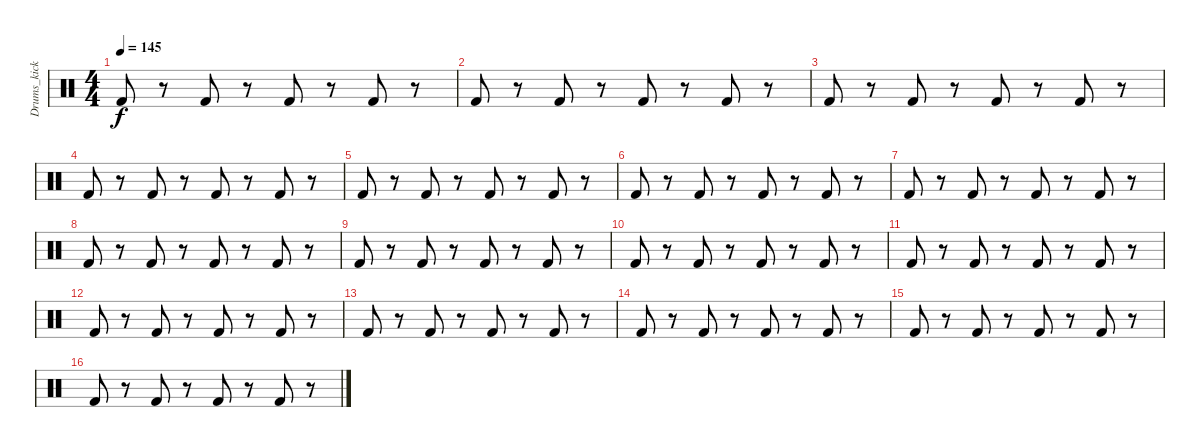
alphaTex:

\track ("Drums_kick" "Drums_kick") {instrument percussion}
\staff {score}
\articulation defaults
\ts (4 4)
\tempo 145
\clef neutral
\ks c "Kick (hit) 2".8{dy f}
r.8 "Kick (hit) 2".8 r.8 "Kick (hit) 2".8 r.8 "Kick (hit) 2".8 r.8 |
"Kick (hit) 2".8 r.8 "Kick (hit) 2".8 r.8 "Kick (hit) 2".8 r.8 "Kick (hit) 2".8 r.8 |
"Kick (hit) 2".8 r.8 "Kick (hit) 2".8 r.8 "Kick (hit) 2".8 r.8 "Kick (hit) 2".8 r.8 |
"Kick (hit) 2".8 r.8 "Kick (hit) 2".8 r.8 "Kick (hit) 2".8 r.8 "Kick (hit) 2".8 r.8 |
"Kick (hit) 2".8 r.8 "Kick (hit) 2".8 r.8 "Kick (hit) 2".8 r.8 "Kick (hit) 2".8 r.8 |
"Kick (hit) 2".8 r.8 "Kick (hit) 2".8 r.8 "Kick (hit) 2".8 r.8 "Kick (hit) 2".8 r.8 |
"Kick (hit) 2".8 r.8 "Kick (hit) 2".8 r.8 "Kick (hit) 2".8 r.8 "Kick (hit) 2".8 r.8 |
"Kick (hit) 2".8 r.8 "Kick (hit) 2".8 r.8 "Kick (hit) 2".8 r.8 "Kick (hit) 2".8 r.8 |
"Kick (hit) 2".8 r.8 "Kick (hit) 2".8 r.8 "Kick (hit) 2".8 r.8 "Kick (hit) 2".8 r.8 |
"Kick (hit) 2".8 r.8 "Kick (hit) 2".8 r.8 "Kick (hit) 2".8 r.8 "Kick (hit) 2".8 r.8 |
"Kick (hit) 2".8 r.8 "Kick (hit) 2".8 r.8 "Kick (hit) 2".8 r.8 "Kick (hit) 2".8 r.8 |
"Kick (hit) 2".8 r.8 "Kick (hit) 2".8 r.8 "Kick (hit) 2".8 r.8 "Kick (hit) 2".8 r.8 |
"Kick (hit) 2".8 r.8 "Kick (hit) 2".8 r.8 "Kick (hit) 2".8 r.8 "Kick (hit) 2".8 r.8 |
"Kick (hit) 2".8 r.8 "Kick (hit) 2".8 r.8 "Kick (hit) 2".8 r.8 "Kick (hit) 2".8 r.8 |
"Kick (hit) 2".8 r.8 "Kick (hit) 2".8 r.8 "Kick (hit) 2".8 r.8 "Kick (hit) 2".8 r.8 |
"Kick (hit) 2".8 r.8 "Kick (hit) 2".8 r.8 "Kick (hit) 2".8 r.8 "Kick (hit) 2".8 r.8
